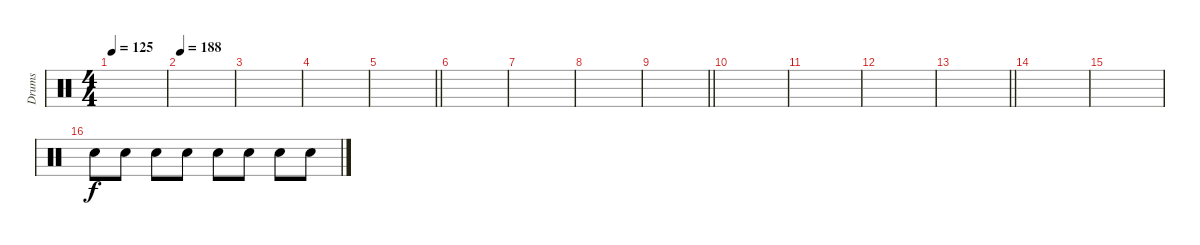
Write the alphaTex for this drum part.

\track ("Drums" "Drums") {instrument percussion}
\staff
\articulation defaults
\ts (4 4)
\tempo 125
\clef neutral
\ks c
|
\tempo 188
|
|
|
\barLineRight lightlight
|
|
|
|
\barLineRight lightlight
|
|
|
|
\barLineRight lightlight
|
|
|
"Electric Snare (hit)".8 "Electric Snare (hit)".8 "Electric Snare (hit)".8 "Electric Snare (hit)".8 "Electric Snare (hit)".8 "Electric Snare (hit)".8 "Electric Snare (hit)".8 "Electric Snare (hit)".8
